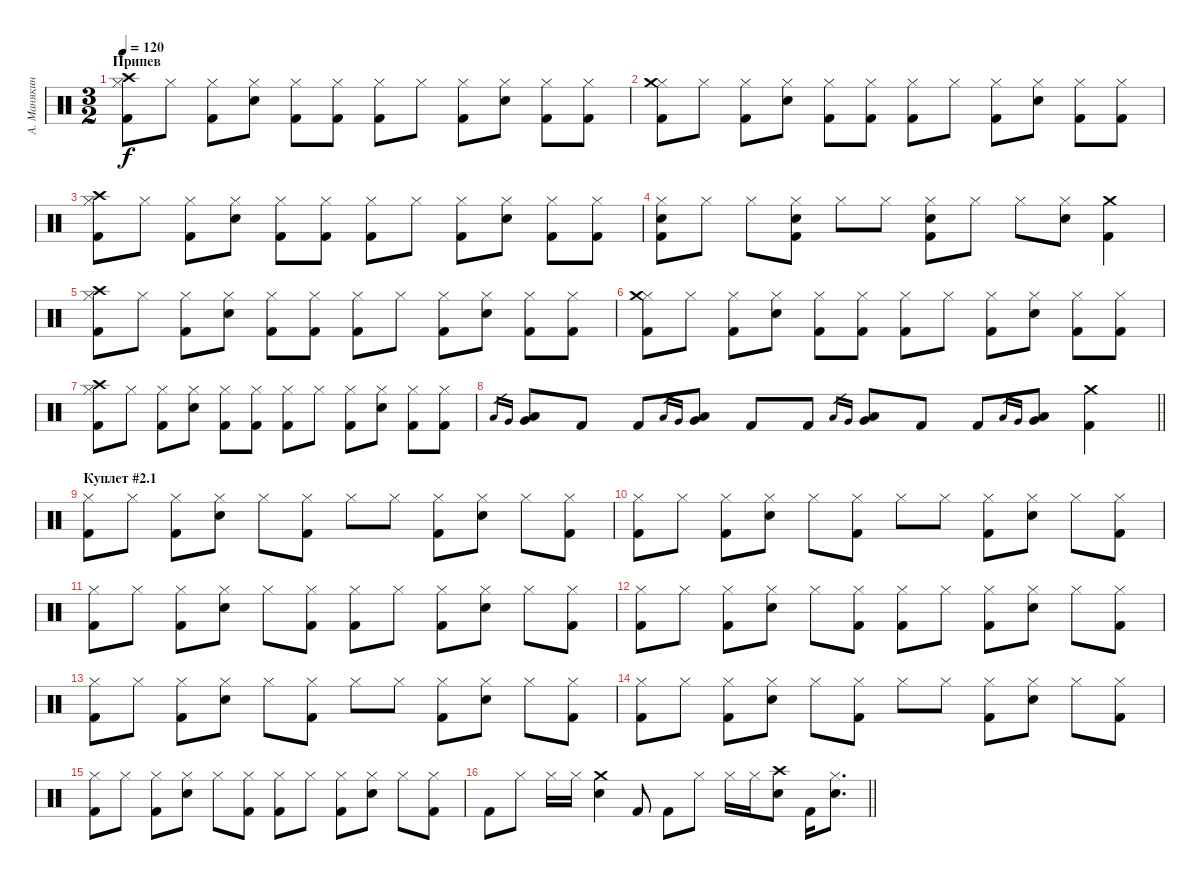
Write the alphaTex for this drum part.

\track ("А. Манякин" "А. Манякин") {instrument percussion}
\staff {score}
\articulation defaults
\ts (3 2)
\section ("" "Припев")
\tempo 120
\clef neutral
\ks c
("Kick (hit) 2" "Hi-Hat (closed)" "Crash high (hit)").8{dy f} "Hi-Hat (closed)".8 ("Kick (hit) 2" "Hi-Hat (closed)").8 ("Electric Snare (hit)" "Hi-Hat (closed)").8 ("Kick (hit) 2" "Hi-Hat (closed)").8 ("Kick (hit) 2" "Hi-Hat (closed)").8 ("Kick (hit) 2" "Hi-Hat (closed)").8 "Hi-Hat (closed)".8 ("Kick (hit) 2" "Hi-Hat (closed)").8 ("Electric Snare (hit)" "Hi-Hat (closed)").8 ("Kick (hit) 2" "Hi-Hat (closed)").8 ("Kick (hit) 2" "Hi-Hat (closed)").8 |
("Kick (hit) 2" "Hi-Hat (closed)" "Crash medium (hit)").8 "Hi-Hat (closed)".8 ("Kick (hit) 2" "Hi-Hat (closed)").8 ("Electric Snare (hit)" "Hi-Hat (closed)").8 ("Kick (hit) 2" "Hi-Hat (closed)").8 ("Kick (hit) 2" "Hi-Hat (closed)").8 ("Kick (hit) 2" "Hi-Hat (closed)").8 "Hi-Hat (closed)".8 ("Kick (hit) 2" "Hi-Hat (closed)").8 ("Electric Snare (hit)" "Hi-Hat (closed)").8 ("Kick (hit) 2" "Hi-Hat (closed)").8 ("Kick (hit) 2" "Hi-Hat (closed)").8 |
("Kick (hit) 2" "Hi-Hat (closed)" "Crash high (hit)").8 "Hi-Hat (closed)".8 ("Kick (hit) 2" "Hi-Hat (closed)").8 ("Electric Snare (hit)" "Hi-Hat (closed)").8 ("Kick (hit) 2" "Hi-Hat (closed)").8 ("Kick (hit) 2" "Hi-Hat (closed)").8 ("Kick (hit) 2" "Hi-Hat (closed)").8 "Hi-Hat (closed)".8 ("Kick (hit) 2" "Hi-Hat (closed)").8 ("Electric Snare (hit)" "Hi-Hat (closed)").8 ("Kick (hit) 2" "Hi-Hat (closed)").8 ("Kick (hit) 2" "Hi-Hat (closed)").8 |
("Kick (hit) 2" "Electric Snare (hit)" "Hi-Hat (closed)").8 "Hi-Hat (closed)".8 "Hi-Hat (closed)".8 ("Kick (hit) 2" "Electric Snare (hit)" "Hi-Hat (closed)").8 "Hi-Hat (closed)".8 "Hi-Hat (closed)".8 ("Kick (hit) 2" "Electric Snare (hit)" "Hi-Hat (closed)").8 "Hi-Hat (closed)".8 "Hi-Hat (closed)".8 ("Electric Snare (hit)" "Hi-Hat (closed)").8 ("Kick (hit) 2" "Crash medium (hit)").4 |
("Kick (hit) 2" "Hi-Hat (closed)" "Crash high (hit)").8 "Hi-Hat (closed)".8 ("Kick (hit) 2" "Hi-Hat (closed)").8 ("Electric Snare (hit)" "Hi-Hat (closed)").8 ("Kick (hit) 2" "Hi-Hat (closed)").8 ("Kick (hit) 2" "Hi-Hat (closed)").8 ("Kick (hit) 2" "Hi-Hat (closed)").8 "Hi-Hat (closed)".8 ("Kick (hit) 2" "Hi-Hat (closed)").8 ("Electric Snare (hit)" "Hi-Hat (closed)").8 ("Kick (hit) 2" "Hi-Hat (closed)").8 ("Kick (hit) 2" "Hi-Hat (closed)").8 |
("Kick (hit) 2" "Hi-Hat (closed)" "Crash medium (hit)").8 "Hi-Hat (closed)".8 ("Kick (hit) 2" "Hi-Hat (closed)").8 ("Electric Snare (hit)" "Hi-Hat (closed)").8 ("Kick (hit) 2" "Hi-Hat (closed)").8 ("Kick (hit) 2" "Hi-Hat (closed)").8 ("Kick (hit) 2" "Hi-Hat (closed)").8 "Hi-Hat (closed)".8 ("Kick (hit) 2" "Hi-Hat (closed)").8 ("Electric Snare (hit)" "Hi-Hat (closed)").8 ("Kick (hit) 2" "Hi-Hat (closed)").8 ("Kick (hit) 2" "Hi-Hat (closed)").8 |
("Kick (hit) 2" "Hi-Hat (closed)" "Crash high (hit)").8 "Hi-Hat (closed)".8 ("Kick (hit) 2" "Hi-Hat (closed)").8 ("Electric Snare (hit)" "Hi-Hat (closed)").8 ("Kick (hit) 2" "Hi-Hat (closed)").8 ("Kick (hit) 2" "Hi-Hat (closed)").8 ("Kick (hit) 2" "Hi-Hat (closed)").8 "Hi-Hat (closed)".8 ("Kick (hit) 2" "Hi-Hat (closed)").8 ("Electric Snare (hit)" "Hi-Hat (closed)").8 ("Kick (hit) 2" "Hi-Hat (closed)").8 ("Kick (hit) 2" "Hi-Hat (closed)").8 |
\barLineRight lightlight "Low Tom (hit)".16{gr} "Very Low Tom (hit)".16{gr}
("Low Tom (hit)" "Very Low Tom (hit)").8 "Kick (hit) 2".8 "Kick (hit) 2".8 "Low Tom (hit)".16{gr} "Very Low Tom (hit)".16{gr} ("Low Tom (hit)" "Very Low Tom (hit)").8 "Kick (hit) 2".8 "Kick (hit) 2".8 "Low Tom (hit)".16{gr} "Very Low Tom (hit)".16{gr} ("Low Tom (hit)" "Very Low Tom (hit)").8 "Kick (hit) 2".8 "Kick (hit) 2".8 "Low Tom (hit)".16{gr} "Very Low Tom (hit)".16{gr} ("Low Tom (hit)" "Very Low Tom (hit)").8 ("Kick (hit) 2" "Crash medium (hit)").4 |
\section ("" "Куплет #2.1")
("Kick (hit) 2" "Hi-Hat (closed)").8 "Hi-Hat (closed)".8 ("Kick (hit) 2" "Hi-Hat (closed)").8 ("Electric Snare (hit)" "Hi-Hat (closed)").8 "Hi-Hat (closed)".8 ("Kick (hit) 2" "Hi-Hat (closed)").8 "Hi-Hat (closed)".8 "Hi-Hat (closed)".8 ("Kick (hit) 2" "Hi-Hat (closed)").8 ("Electric Snare (hit)" "Hi-Hat (closed)").8 "Hi-Hat (closed)".8 ("Kick (hit) 2" "Hi-Hat (closed)").8 |
("Kick (hit) 2" "Hi-Hat (closed)").8 "Hi-Hat (closed)".8 ("Kick (hit) 2" "Hi-Hat (closed)").8 ("Electric Snare (hit)" "Hi-Hat (closed)").8 "Hi-Hat (closed)".8 ("Kick (hit) 2" "Hi-Hat (closed)").8 "Hi-Hat (closed)".8 "Hi-Hat (closed)".8 ("Kick (hit) 2" "Hi-Hat (closed)").8 ("Electric Snare (hit)" "Hi-Hat (closed)").8 "Hi-Hat (closed)".8 ("Kick (hit) 2" "Hi-Hat (closed)").8 |
("Kick (hit) 2" "Hi-Hat (closed)").8 "Hi-Hat (closed)".8 ("Kick (hit) 2" "Hi-Hat (closed)").8 ("Electric Snare (hit)" "Hi-Hat (closed)").8 "Hi-Hat (closed)".8 ("Kick (hit) 2" "Hi-Hat (closed)").8 ("Kick (hit) 2" "Hi-Hat (closed)").8 "Hi-Hat (closed)".8 ("Kick (hit) 2" "Hi-Hat (closed)").8 ("Electric Snare (hit)" "Hi-Hat (closed)").8 "Hi-Hat (closed)".8 ("Kick (hit) 2" "Hi-Hat (closed)").8 |
("Kick (hit) 2" "Hi-Hat (closed)").8 "Hi-Hat (closed)".8 ("Kick (hit) 2" "Hi-Hat (closed)").8 ("Electric Snare (hit)" "Hi-Hat (closed)").8 "Hi-Hat (closed)".8 ("Kick (hit) 2" "Hi-Hat (closed)").8 ("Kick (hit) 2" "Hi-Hat (closed)").8 "Hi-Hat (closed)".8 ("Kick (hit) 2" "Hi-Hat (closed)").8 ("Electric Snare (hit)" "Hi-Hat (closed)").8 "Hi-Hat (closed)".8 ("Kick (hit) 2" "Hi-Hat (closed)").8 |
("Kick (hit) 2" "Hi-Hat (closed)").8 "Hi-Hat (closed)".8 ("Kick (hit) 2" "Hi-Hat (closed)").8 ("Electric Snare (hit)" "Hi-Hat (closed)").8 "Hi-Hat (closed)".8 ("Kick (hit) 2" "Hi-Hat (closed)").8 "Hi-Hat (closed)".8 "Hi-Hat (closed)".8 ("Kick (hit) 2" "Hi-Hat (closed)").8 ("Electric Snare (hit)" "Hi-Hat (closed)").8 "Hi-Hat (closed)".8 ("Kick (hit) 2" "Hi-Hat (closed)").8 |
("Kick (hit) 2" "Hi-Hat (closed)").8 "Hi-Hat (closed)".8 ("Kick (hit) 2" "Hi-Hat (closed)").8 ("Electric Snare (hit)" "Hi-Hat (closed)").8 "Hi-Hat (closed)".8 ("Kick (hit) 2" "Hi-Hat (closed)").8 "Hi-Hat (closed)".8 "Hi-Hat (closed)".8 ("Kick (hit) 2" "Hi-Hat (closed)").8 ("Electric Snare (hit)" "Hi-Hat (closed)").8 "Hi-Hat (closed)".8 ("Kick (hit) 2" "Hi-Hat (closed)").8 |
("Kick (hit) 2" "Hi-Hat (closed)").8 "Hi-Hat (closed)".8 ("Kick (hit) 2" "Hi-Hat (closed)").8 ("Electric Snare (hit)" "Hi-Hat (closed)").8 "Hi-Hat (closed)".8 ("Kick (hit) 2" "Hi-Hat (closed)").8 ("Kick (hit) 2" "Hi-Hat (closed)").8 "Hi-Hat (closed)".8 ("Kick (hit) 2" "Hi-Hat (closed)").8 ("Electric Snare (hit)" "Hi-Hat (closed)").8 "Hi-Hat (closed)".8 ("Kick (hit) 2" "Hi-Hat (closed)").8 |
\barLineRight lightlight "Kick (hit) 2".8 "Hi-Hat (closed)".8 "Hi-Hat (closed)".16 "Hi-Hat (closed)".16
("Electric Snare (hit)" "Crash medium (hit)").4 "Kick (hit) 2".8 "Kick (hit) 2".8 "Hi-Hat (closed)".8 "Hi-Hat (closed)".16 "Hi-Hat (closed)".16 ("Electric Snare (hit)" "Crash high (hit)").8 "Kick (hit) 2".16 ("Electric Snare (hit)" "Hi-Hat (closed)").8{d}
